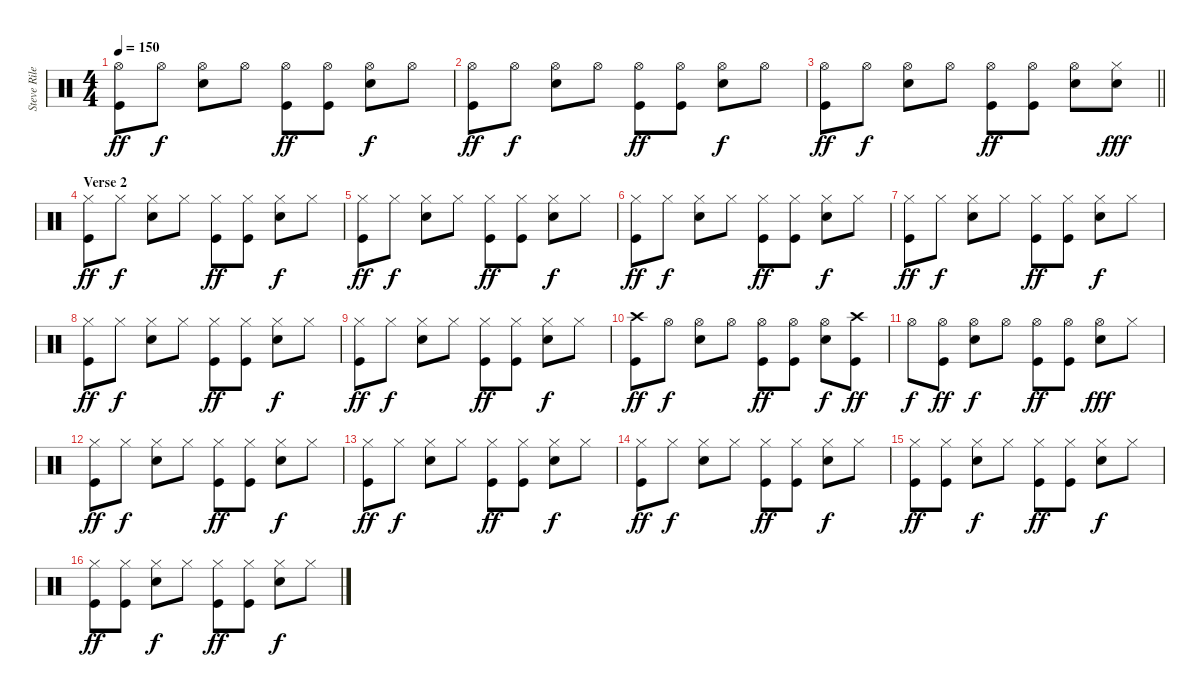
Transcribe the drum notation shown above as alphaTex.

\track ("Steve Riley" "Steve Rile") {instrument percussion}
\staff {score}
\articulation defaults
\ts (4 4)
\tempo 150
\clef neutral
\ks c
("Hi-Hat (open)" "Kick (hit)").8{dy ff} "Hi-Hat (open)".8{dy f} ("Hi-Hat (open)" "Snare (hit) 2").8 "Hi-Hat (open)".8 ("Hi-Hat (open)" "Kick (hit)").8{dy ff} ("Hi-Hat (open)" "Kick (hit)").8 ("Hi-Hat (open)" "Snare (hit) 2").8{dy f} "Hi-Hat (open)".8 |
("Hi-Hat (open)" "Kick (hit)").8{dy ff} "Hi-Hat (open)".8{dy f} ("Hi-Hat (open)" "Snare (hit) 2").8 "Hi-Hat (open)".8 ("Hi-Hat (open)" "Kick (hit)").8{dy ff} ("Hi-Hat (open)" "Kick (hit)").8 ("Hi-Hat (open)" "Snare (hit) 2").8{dy f} "Hi-Hat (open)".8 |
\barLineRight lightlight
("Hi-Hat (open)" "Kick (hit)").8{dy ff} "Hi-Hat (open)".8{dy f} ("Hi-Hat (open)" "Snare (hit) 2").8 "Hi-Hat (open)".8 ("Hi-Hat (open)" "Kick (hit)").8{dy ff} ("Hi-Hat (open)" "Kick (hit)").8 ("Hi-Hat (open)" "Snare (hit) 2").8 ("Hi-Hat (closed)" "Snare (hit) 2").8{dy fff} |
\section ("" "Verse 2")
("Hi-Hat (closed)" "Kick (hit)").8{dy ff} "Hi-Hat (closed)".8{dy f} ("Hi-Hat (closed)" "Snare (hit) 2").8 "Hi-Hat (closed)".8 ("Hi-Hat (closed)" "Kick (hit)").8{dy ff} ("Hi-Hat (closed)" "Kick (hit)").8 ("Hi-Hat (closed)" "Snare (hit) 2").8{dy f} "Hi-Hat (closed)".8 |
("Hi-Hat (closed)" "Kick (hit)").8{dy ff} "Hi-Hat (closed)".8{dy f} ("Hi-Hat (closed)" "Snare (hit) 2").8 "Hi-Hat (closed)".8 ("Hi-Hat (closed)" "Kick (hit)").8{dy ff} ("Hi-Hat (closed)" "Kick (hit)").8 ("Hi-Hat (closed)" "Snare (hit) 2").8{dy f} "Hi-Hat (closed)".8 |
("Hi-Hat (closed)" "Kick (hit)").8{dy ff} "Hi-Hat (closed)".8{dy f} ("Hi-Hat (closed)" "Snare (hit) 2").8 "Hi-Hat (closed)".8 ("Hi-Hat (closed)" "Kick (hit)").8{dy ff} ("Hi-Hat (closed)" "Kick (hit)").8 ("Hi-Hat (closed)" "Snare (hit) 2").8{dy f} "Hi-Hat (closed)".8 |
("Hi-Hat (closed)" "Kick (hit)").8{dy ff} "Hi-Hat (closed)".8{dy f} ("Hi-Hat (closed)" "Snare (hit) 2").8 "Hi-Hat (closed)".8 ("Hi-Hat (closed)" "Kick (hit)").8{dy ff} ("Hi-Hat (closed)" "Kick (hit)").8 ("Hi-Hat (closed)" "Snare (hit) 2").8{dy f} "Hi-Hat (closed)".8 |
("Hi-Hat (closed)" "Kick (hit)").8{dy ff} "Hi-Hat (closed)".8{dy f} ("Hi-Hat (closed)" "Snare (hit) 2").8 "Hi-Hat (closed)".8 ("Hi-Hat (closed)" "Kick (hit)").8{dy ff} ("Hi-Hat (closed)" "Kick (hit)").8 ("Hi-Hat (closed)" "Snare (hit) 2").8{dy f} "Hi-Hat (closed)".8 |
("Hi-Hat (closed)" "Kick (hit)").8{dy ff} "Hi-Hat (closed)".8{dy f} ("Hi-Hat (closed)" "Snare (hit) 2").8 "Hi-Hat (closed)".8 ("Hi-Hat (closed)" "Kick (hit)").8{dy ff} ("Hi-Hat (closed)" "Kick (hit)").8 ("Hi-Hat (closed)" "Snare (hit) 2").8{dy f} "Hi-Hat (closed)".8 |
("Crash high (hit)" "Kick (hit)").8{dy ff} "Hi-Hat (open)".8{dy f} ("Hi-Hat (open)" "Snare (hit) 2").8 "Hi-Hat (open)".8 ("Hi-Hat (open)" "Kick (hit)").8{dy ff} ("Hi-Hat (open)" "Kick (hit)").8 ("Hi-Hat (open)" "Snare (hit) 2").8{dy f} ("Crash high (hit)" "Kick (hit)").8{dy ff} |
"Hi-Hat (open)".8{dy f} ("Hi-Hat (open)" "Kick (hit)").8{dy ff} ("Hi-Hat (open)" "Snare (hit) 2").8{dy f} "Hi-Hat (open)".8 ("Hi-Hat (open)" "Kick (hit)").8{dy ff} ("Hi-Hat (open)" "Kick (hit)").8 ("Hi-Hat (open)" "Snare (hit) 2").8{dy fff} "Hi-Hat (closed)".8 |
("Hi-Hat (closed)" "Kick (hit)").8{dy ff} "Hi-Hat (closed)".8{dy f} ("Hi-Hat (closed)" "Snare (hit) 2").8 "Hi-Hat (closed)".8 ("Hi-Hat (closed)" "Kick (hit)").8{dy ff} ("Hi-Hat (closed)" "Kick (hit)").8 ("Hi-Hat (closed)" "Snare (hit) 2").8{dy f} "Hi-Hat (closed)".8 |
("Hi-Hat (closed)" "Kick (hit)").8{dy ff} "Hi-Hat (closed)".8{dy f} ("Hi-Hat (closed)" "Snare (hit) 2").8 "Hi-Hat (closed)".8 ("Hi-Hat (closed)" "Kick (hit)").8{dy ff} ("Hi-Hat (closed)" "Kick (hit)").8 ("Hi-Hat (closed)" "Snare (hit) 2").8{dy f} "Hi-Hat (closed)".8 |
("Hi-Hat (closed)" "Kick (hit)").8{dy ff} "Hi-Hat (closed)".8{dy f} ("Hi-Hat (closed)" "Snare (hit) 2").8 "Hi-Hat (closed)".8 ("Hi-Hat (closed)" "Kick (hit)").8{dy ff} ("Hi-Hat (closed)" "Kick (hit)").8 ("Hi-Hat (closed)" "Snare (hit) 2").8{dy f} "Hi-Hat (closed)".8 |
("Hi-Hat (closed)" "Kick (hit)").8{dy ff} ("Hi-Hat (closed)" "Kick (hit)").8 ("Hi-Hat (closed)" "Snare (hit) 2").8{dy f} "Hi-Hat (closed)".8 ("Hi-Hat (closed)" "Kick (hit)").8{dy ff} ("Hi-Hat (closed)" "Kick (hit)").8 ("Hi-Hat (closed)" "Snare (hit) 2").8{dy f} "Hi-Hat (closed)".8 |
("Hi-Hat (closed)" "Kick (hit)").8{dy ff} ("Hi-Hat (closed)" "Kick (hit)").8 ("Hi-Hat (closed)" "Snare (hit) 2").8{dy f} "Hi-Hat (closed)".8 ("Hi-Hat (closed)" "Kick (hit)").8{dy ff} ("Hi-Hat (closed)" "Kick (hit)").8 ("Hi-Hat (closed)" "Snare (hit) 2").8{dy f} "Hi-Hat (closed)".8
